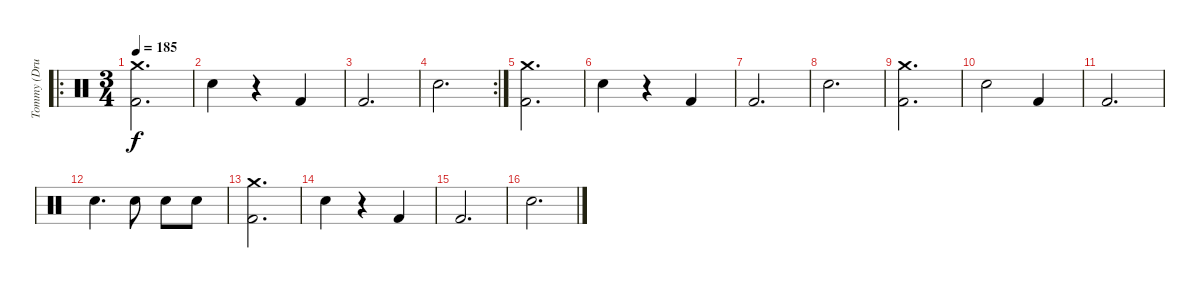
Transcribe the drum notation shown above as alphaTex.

\track ("Tommy (Drums)" "Tommy (Dru") {instrument percussion}
\staff {score}
\articulation defaults
\ro
\ts (3 4)
\tempo 185
\clef neutral
\ks c
("Crash medium (hit)" "Kick (hit) 2").2{d dy f} |
"Electric Snare (hit)".4 r.4 "Kick (hit) 2".4 |
"Kick (hit) 2".2{d} |
\rc 2 "Electric Snare (hit)".2{d}
|
("Crash medium (hit)" "Kick (hit) 2").2{d} |
"Electric Snare (hit)".4 r.4 "Kick (hit) 2".4 |
"Kick (hit) 2".2{d} |
"Electric Snare (hit)".2{d} |
("Crash medium (hit)" "Kick (hit) 2").2{d} |
"Electric Snare (hit)".2 "Kick (hit) 2".4 |
"Kick (hit) 2".2{d} |
"Electric Snare (hit)".4{d} "Electric Snare (hit)".8 "Electric Snare (hit)".8 "Electric Snare (hit)".8 |
("Crash medium (hit)" "Kick (hit) 2").2{d} |
"Electric Snare (hit)".4 r.4 "Kick (hit) 2".4 |
"Kick (hit) 2".2{d} |
"Electric Snare (hit)".2{d}
